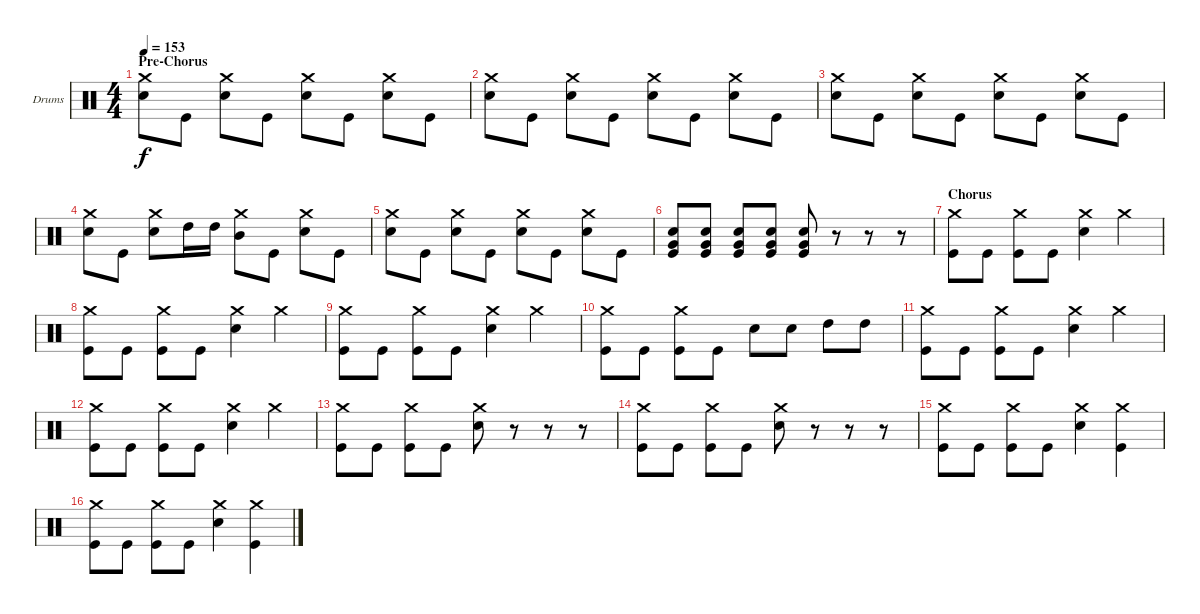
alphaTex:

\bracketExtendMode groupsimilarinstruments
\firstSystemTrackNameOrientation horizontal
\otherSystemsTrackNameOrientation horizontal
\track ("Drumkit" "Drums") {instrument percussion}
\staff {score}
\articulation defaults
\ts (4 4)
\section ("" "Pre-Chorus")
\tempo 153
\clef neutral
\ks c
("Crash medium (hit)" "Snare (hit) 2").8{dy f} "Kick (hit)".8 ("Crash medium (hit)" "Snare (hit) 2").8 "Kick (hit)".8 ("Crash medium (hit)" "Snare (hit) 2").8 "Kick (hit)".8 ("Crash medium (hit)" "Snare (hit) 2").8 "Kick (hit)".8 |
("Crash medium (hit)" "Snare (hit) 2").8 "Kick (hit)".8 ("Crash medium (hit)" "Snare (hit) 2").8 "Kick (hit)".8 ("Crash medium (hit)" "Snare (hit) 2").8 "Kick (hit)".8 ("Crash medium (hit)" "Snare (hit) 2").8 "Kick (hit)".8 |
("Crash medium (hit)" "Snare (hit) 2").8 "Kick (hit)".8 ("Crash medium (hit)" "Snare (hit) 2").8 "Kick (hit)".8 ("Crash medium (hit)" "Snare (hit) 2").8 "Kick (hit)".8 ("Crash medium (hit)" "Snare (hit) 2").8 "Kick (hit)".8 |
("Crash medium (hit)" "Snare (hit) 2").8 "Kick (hit)".8 ("Crash medium (hit)" "Snare (hit) 2").8 "High Tom (hit)".16 "High Tom (hit)".16 ("Crash medium (hit)" "Mid Tom (hit)").8 "Kick (hit)".8 ("Crash medium (hit)" "Snare (hit) 2").8 "Kick (hit)".8 |
("Crash medium (hit)" "Snare (hit) 2").8 "Kick (hit)".8 ("Crash medium (hit)" "Snare (hit) 2").8 "Kick (hit)".8 ("Crash medium (hit)" "Snare (hit) 2").8 "Kick (hit)".8 ("Crash medium (hit)" "Snare (hit) 2").8 "Kick (hit)".8 |
("Very Low Tom (hit)" "Kick (hit)" "Snare (hit) 2").8 ("Very Low Tom (hit)" "Kick (hit)" "Snare (hit) 2").8 ("Very Low Tom (hit)" "Kick (hit)" "Snare (hit) 2").8 ("Very Low Tom (hit)" "Kick (hit)" "Snare (hit) 2").8 ("Very Low Tom (hit)" "Kick (hit)" "Snare (hit) 2").8 r.8 r.8 r.8 |
\section ("" "Chorus")
("Crash medium (hit)" "Kick (hit)").8 "Kick (hit)".8 ("Crash medium (hit)" "Kick (hit)").8 "Kick (hit)".8 ("Crash medium (hit)" "Snare (hit) 2").4 "Crash medium (hit)".4 |
("Crash medium (hit)" "Kick (hit)").8 "Kick (hit)".8 ("Crash medium (hit)" "Kick (hit)").8 "Kick (hit)".8 ("Crash medium (hit)" "Snare (hit) 2").4 "Crash medium (hit)".4 |
("Crash medium (hit)" "Kick (hit)").8 "Kick (hit)".8 ("Crash medium (hit)" "Kick (hit)").8 "Kick (hit)".8 ("Crash medium (hit)" "Snare (hit) 2").4 "Crash medium (hit)".4 |
("Crash medium (hit)" "Kick (hit)").8 "Kick (hit)".8 ("Crash medium (hit)" "Kick (hit)").8 "Kick (hit)".8 "Snare (hit) 2".8 "Snare (hit) 2".8 "High Tom (hit)".8 "High Tom (hit)".8 |
("Crash medium (hit)" "Kick (hit)").8 "Kick (hit)".8 ("Crash medium (hit)" "Kick (hit)").8 "Kick (hit)".8 ("Crash medium (hit)" "Snare (hit) 2").4 "Crash medium (hit)".4 |
("Crash medium (hit)" "Kick (hit)").8 "Kick (hit)".8 ("Crash medium (hit)" "Kick (hit)").8 "Kick (hit)".8 ("Crash medium (hit)" "Snare (hit) 2").4 "Crash medium (hit)".4 |
("Crash medium (hit)" "Kick (hit)").8 "Kick (hit)".8 ("Crash medium (hit)" "Kick (hit)").8 "Kick (hit)".8 ("Crash medium (hit)" "Snare (hit) 2").8 r.8 r.8 r.8 |
("Crash medium (hit)" "Kick (hit)").8 "Kick (hit)".8 ("Crash medium (hit)" "Kick (hit)").8 "Kick (hit)".8 ("Crash medium (hit)" "Snare (hit) 2").8 r.8 r.8 r.8 |
("Crash medium (hit)" "Kick (hit)").8 "Kick (hit)".8 ("Crash medium (hit)" "Kick (hit)").8 "Kick (hit)".8 ("Crash medium (hit)" "Snare (hit) 2").4 ("Crash medium (hit)" "Kick (hit)").4 |
("Crash medium (hit)" "Kick (hit)").8 "Kick (hit)".8 ("Crash medium (hit)" "Kick (hit)").8 "Kick (hit)".8 ("Crash medium (hit)" "Snare (hit) 2").4 ("Crash medium (hit)" "Kick (hit)").4
